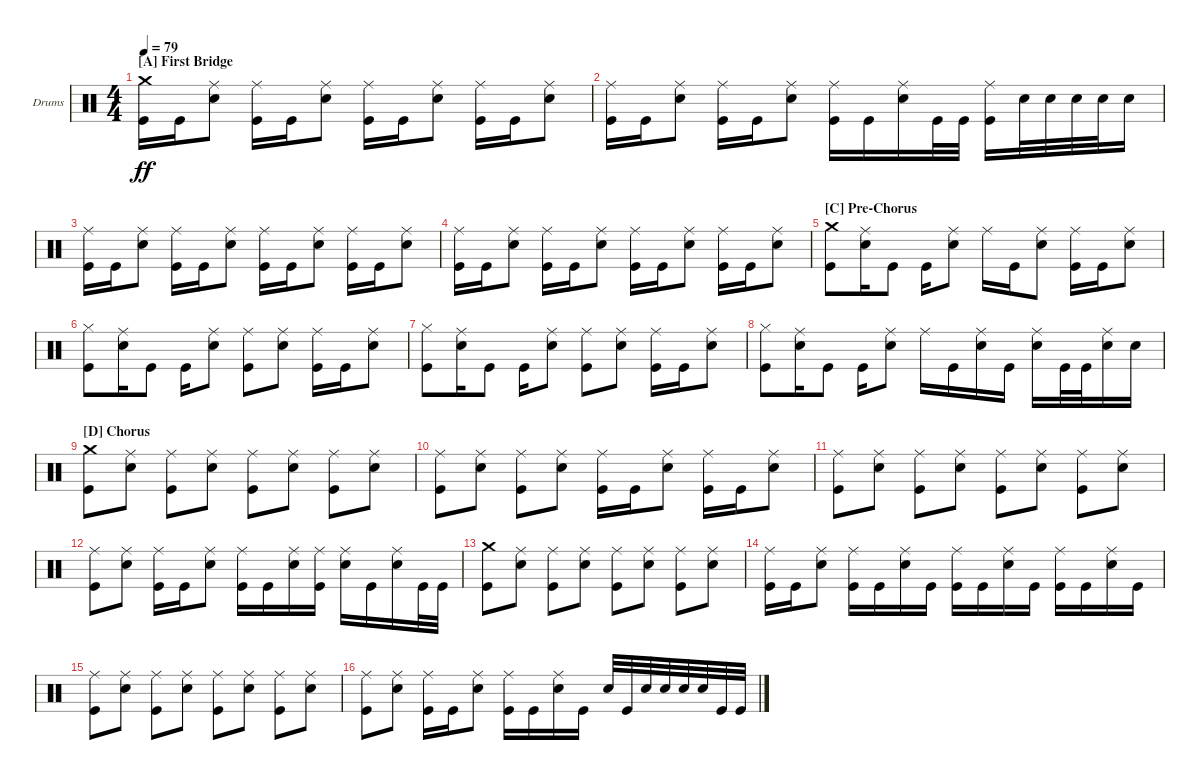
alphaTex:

\bracketExtendMode groupsimilarinstruments
\firstSystemTrackNameOrientation horizontal
\otherSystemsTrackNameOrientation horizontal
\track ("Drums" "Drums") {instrument percussion}
\staff {score}
\articulation defaults
\ts (4 4)
\section ("A" "First Bridge")
\tempo 79
\clef neutral
\ks c
("Kick (hit)" "Crash medium (hit)").16{dy ff} "Kick (hit)".16 ("Snare (hit) 2" "Ride (middle)").8 ("Kick (hit)" "Ride (middle)").16 "Kick (hit)".16 ("Snare (hit) 2" "Ride (middle)").8 ("Kick (hit)" "Ride (middle)").16 "Kick (hit)".16 ("Snare (hit) 2" "Ride (middle)").8 ("Kick (hit)" "Ride (middle)").16 "Kick (hit)".16 ("Snare (hit) 2" "Ride (middle)").8 |
("Kick (hit)" "Ride (middle)").16 "Kick (hit)".16 ("Snare (hit) 2" "Ride (middle)").8 ("Kick (hit)" "Ride (middle)").16 "Kick (hit)".16 ("Snare (hit) 2" "Ride (middle)").8 ("Kick (hit)" "Ride (middle)").16 "Kick (hit)".16 ("Snare (hit) 2" "Ride (middle)").16 "Kick (hit)".32 "Kick (hit)".32 ("Ride (middle)" "Kick (hit)").16 "Snare (hit) 2".32 "Snare (hit) 2".32 "Snare (hit) 2".32 "Snare (hit) 2".32 "Snare (hit) 2".16 |
("Kick (hit)" "Ride (middle)").16 "Kick (hit)".16 ("Snare (hit) 2" "Ride (middle)").8 ("Kick (hit)" "Ride (middle)").16 "Kick (hit)".16 ("Snare (hit) 2" "Ride (middle)").8 ("Kick (hit)" "Ride (middle)").16 "Kick (hit)".16 ("Snare (hit) 2" "Ride (middle)").8 ("Kick (hit)" "Ride (middle)").16 "Kick (hit)".16 ("Snare (hit) 2" "Ride (middle)").8 |
("Kick (hit)" "Ride (middle)").16 "Kick (hit)".16 ("Snare (hit) 2" "Ride (middle)").8 ("Kick (hit)" "Ride (middle)").16 "Kick (hit)".16 ("Snare (hit) 2" "Ride (middle)").8 ("Kick (hit)" "Ride (middle)").16 "Kick (hit)".16 ("Snare (hit) 2" "Ride (middle)").8 ("Kick (hit)" "Ride (middle)").16 "Kick (hit)".16 ("Snare (hit) 2" "Ride (middle)").8 |
\section ("C" "Pre-Chorus")
("Kick (hit)" "Crash medium (hit)").8 ("Snare (hit) 2" "Ride (middle)").16 "Kick (hit)".8 "Kick (hit)".16 ("Snare (hit) 2" "Ride (middle)").8 "Ride (middle)".16 "Kick (hit)".16 ("Snare (hit) 2" "Ride (middle)").8 ("Kick (hit)" "Ride (middle)").16 "Kick (hit)".16 ("Snare (hit) 2" "Ride (middle)").8 |
("Kick (hit)" "Hi-Hat (closed)").8 ("Snare (hit) 2" "Ride (middle)").16 "Kick (hit)".8 "Kick (hit)".16 ("Snare (hit) 2" "Ride (middle)").8 ("Ride (middle)" "Kick (hit)").8 ("Snare (hit) 2" "Ride (middle)").8 ("Kick (hit)" "Ride (middle)").16 "Kick (hit)".16 ("Snare (hit) 2" "Ride (middle)").8 |
("Kick (hit)" "Hi-Hat (closed)").8 ("Snare (hit) 2" "Ride (middle)").16 "Kick (hit)".8 "Kick (hit)".16 ("Snare (hit) 2" "Ride (middle)").8 ("Ride (middle)" "Kick (hit)").8 ("Snare (hit) 2" "Ride (middle)").8 ("Kick (hit)" "Ride (middle)").16 "Kick (hit)".16 ("Snare (hit) 2" "Ride (middle)").8 |
("Kick (hit)" "Hi-Hat (closed)").8 ("Snare (hit) 2" "Ride (middle)").16 "Kick (hit)".8 "Kick (hit)".16 ("Snare (hit) 2" "Ride (middle)").8 "Ride (middle)".16 "Kick (hit)".16 ("Snare (hit) 2" "Ride (middle)").16 "Kick (hit)".16 ("Ride (middle)" "Snare (hit) 2").16 "Kick (hit)".32 "Kick (hit)".32 ("Snare (hit) 2" "Ride (middle)").16 "Snare (hit) 2".16 |
\section ("D" "Chorus")
("Kick (hit)" "Crash medium (hit)").8 ("Snare (hit) 2" "Ride (middle)").8 ("Kick (hit)" "Ride (middle)").8 ("Snare (hit) 2" "Ride (middle)").8 ("Kick (hit)" "Ride (middle)").8 ("Snare (hit) 2" "Ride (middle)").8 ("Kick (hit)" "Ride (middle)").8 ("Snare (hit) 2" "Ride (middle)").8 |
("Kick (hit)" "Ride (middle)").8 ("Snare (hit) 2" "Ride (middle)").8 ("Kick (hit)" "Ride (middle)").8 ("Snare (hit) 2" "Ride (middle)").8 ("Kick (hit)" "Ride (middle)").16 "Kick (hit)".16 ("Snare (hit) 2" "Ride (middle)").8 ("Kick (hit)" "Ride (middle)").16 "Kick (hit)".16 ("Snare (hit) 2" "Ride (middle)").8 |
("Kick (hit)" "Ride (middle)").8 ("Snare (hit) 2" "Ride (middle)").8 ("Kick (hit)" "Ride (middle)").8 ("Snare (hit) 2" "Ride (middle)").8 ("Kick (hit)" "Ride (middle)").8 ("Snare (hit) 2" "Ride (middle)").8 ("Kick (hit)" "Ride (middle)").8 ("Snare (hit) 2" "Ride (middle)").8 |
("Kick (hit)" "Ride (middle)").8 ("Snare (hit) 2" "Ride (middle)").8 ("Kick (hit)" "Ride (middle)").16 "Kick (hit)".16 ("Snare (hit) 2" "Ride (middle)").8 ("Kick (hit)" "Ride (middle)").16 "Kick (hit)".16 ("Snare (hit) 2" "Ride (middle)").16 ("Kick (hit)" "Ride (middle)").16 ("Ride (middle)" "Snare (hit) 2").16 "Kick (hit)".16 ("Snare (hit) 2" "Ride (middle)").16 "Kick (hit)".32 "Kick (hit)".32 |
("Kick (hit)" "Crash medium (hit)").8 ("Snare (hit) 2" "Ride (middle)").8 ("Kick (hit)" "Ride (middle)").8 ("Snare (hit) 2" "Ride (middle)").8 ("Kick (hit)" "Ride (middle)").8 ("Snare (hit) 2" "Ride (middle)").8 ("Kick (hit)" "Ride (middle)").8 ("Snare (hit) 2" "Ride (middle)").8 |
("Kick (hit)" "Ride (middle)").16 "Kick (hit)".16 ("Snare (hit) 2" "Ride (middle)").8 ("Kick (hit)" "Ride (middle)").16 "Kick (hit)".16 ("Snare (hit) 2" "Ride (middle)").16 "Kick (hit)".16 ("Kick (hit)" "Ride (middle)").16 "Kick (hit)".16 ("Snare (hit) 2" "Ride (middle)").16 "Kick (hit)".16 ("Kick (hit)" "Ride (middle)").16 "Kick (hit)".16 ("Snare (hit) 2" "Ride (middle)").16 "Kick (hit)".16 |
("Kick (hit)" "Ride (middle)").8 ("Snare (hit) 2" "Ride (middle)").8 ("Kick (hit)" "Ride (middle)").8 ("Snare (hit) 2" "Ride (middle)").8 ("Kick (hit)" "Ride (middle)").8 ("Snare (hit) 2" "Ride (middle)").8 ("Kick (hit)" "Ride (middle)").8 ("Snare (hit) 2" "Ride (middle)").8 |
("Kick (hit)" "Ride (middle)").8 ("Snare (hit) 2" "Ride (middle)").8 ("Kick (hit)" "Ride (middle)").16 "Kick (hit)".16 ("Snare (hit) 2" "Ride (middle)").8 ("Kick (hit)" "Ride (middle)").16 "Kick (hit)".16 ("Snare (hit) 2" "Ride (middle)").16 "Kick (hit)".16 "Snare (hit) 2".32 "Kick (hit)".32 "Snare (hit) 2".32 "Snare (hit) 2".32 "Snare (hit) 2".32 "Snare (hit) 2".32 "Kick (hit)".32 "Kick (hit)".32
